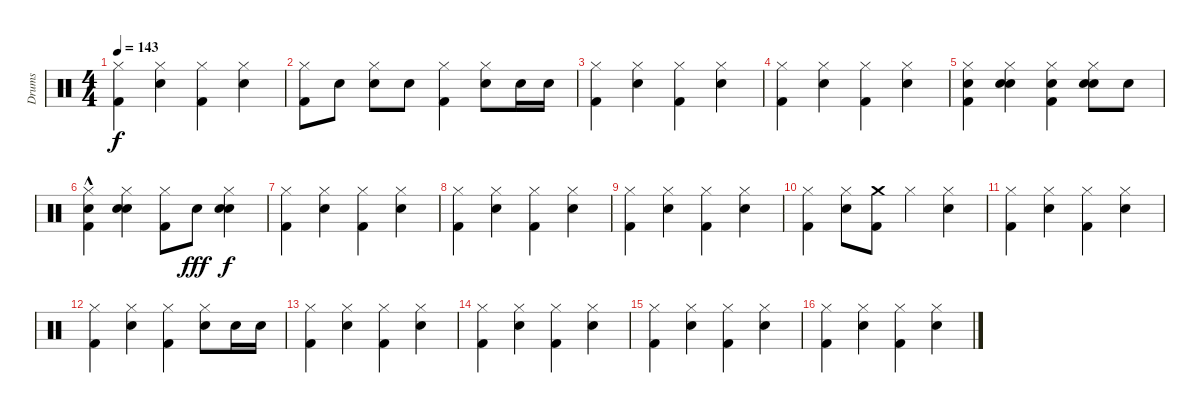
\track ("Drums" "Drums") {instrument percussion}
\staff {score}
\articulation defaults
\ts (4 4)
\tempo 143
\clef neutral
\ks c
("Hi-Hat (closed)" "Kick (hit) 2").4{dy f} ("Hi-Hat (closed)" "Electric Snare (hit)").4 ("Hi-Hat (closed)" "Kick (hit) 2").4 ("Hi-Hat (closed)" "Electric Snare (hit)").4 |
("Hi-Hat (closed)" "Kick (hit) 2").8 "Electric Snare (hit)".8 ("Hi-Hat (closed)" "Electric Snare (hit)").8 "Electric Snare (hit)".8 ("Hi-Hat (closed)" "Kick (hit) 2").4 ("Hi-Hat (closed)" "Electric Snare (hit)").8 "Electric Snare (hit)".16 "Snare (hit) 2".16 |
("Hi-Hat (closed)" "Kick (hit) 2").4 ("Hi-Hat (closed)" "Electric Snare (hit)").4 ("Hi-Hat (closed)" "Kick (hit) 2").4 ("Hi-Hat (closed)" "Electric Snare (hit)").4 |
("Hi-Hat (closed)" "Kick (hit) 2").4 ("Hi-Hat (closed)" "Electric Snare (hit)").4 ("Hi-Hat (closed)" "Kick (hit) 2").4 ("Hi-Hat (closed)" "Electric Snare (hit)").4 |
("Hand Clap (hit)" "Hi-Hat (closed)" "Kick (hit) 2").4 ("Hand Clap (hit)" "Hi-Hat (closed)" "Electric Snare (hit)").4 ("Hand Clap (hit)" "Hi-Hat (closed)" "Kick (hit) 2").4 ("Hand Clap (hit)" "Hi-Hat (closed)" "Electric Snare (hit)").8 "Hand Clap (hit)".8 |
("Hand Clap (hit)"{hac} "Hi-Hat (closed)"{hac} "Kick (hit) 2").4 ("Hand Clap (hit)" "Hi-Hat (closed)" "Electric Snare (hit)").4 ("Hi-Hat (closed)" "Kick (hit) 2").8 "Hand Clap (hit)".8{dy fff} ("Hand Clap (hit)" "Hi-Hat (closed)" "Electric Snare (hit)").4{dy f} |
("Hi-Hat (closed)" "Kick (hit) 2").4 ("Hi-Hat (closed)" "Electric Snare (hit)").4 ("Hi-Hat (closed)" "Kick (hit) 2").4 ("Hi-Hat (closed)" "Electric Snare (hit)").4 |
("Hi-Hat (closed)" "Kick (hit) 2").4 ("Hi-Hat (closed)" "Electric Snare (hit)").4 ("Hi-Hat (closed)" "Kick (hit) 2").4 ("Hi-Hat (closed)" "Electric Snare (hit)").4 |
("Hi-Hat (closed)" "Kick (hit) 2").4 ("Hi-Hat (closed)" "Electric Snare (hit)").4 ("Hi-Hat (closed)" "Kick (hit) 2").4 ("Hi-Hat (closed)" "Electric Snare (hit)").4 |
("Hi-Hat (closed)" "Kick (hit) 2").4 ("Hi-Hat (closed)" "Electric Snare (hit)").8 ("Crash medium (hit)" "Kick (hit) 2").8 "Hi-Hat (closed)".4 ("Hi-Hat (closed)" "Electric Snare (hit)").4 |
("Hi-Hat (closed)" "Kick (hit) 2").4 ("Hi-Hat (closed)" "Electric Snare (hit)").4 ("Hi-Hat (closed)" "Kick (hit) 2").4 ("Hi-Hat (closed)" "Electric Snare (hit)").4 |
("Hi-Hat (closed)" "Kick (hit) 2").4 ("Hi-Hat (closed)" "Electric Snare (hit)").4 ("Hi-Hat (closed)" "Kick (hit) 2").4 ("Hi-Hat (closed)" "Electric Snare (hit)").8 "Electric Snare (hit)".16 "Electric Snare (hit)".16 |
("Hi-Hat (closed)" "Kick (hit) 2").4 ("Hi-Hat (closed)" "Electric Snare (hit)").4 ("Hi-Hat (closed)" "Kick (hit) 2").4 ("Hi-Hat (closed)" "Electric Snare (hit)").4 |
("Hi-Hat (closed)" "Kick (hit) 2").4 ("Hi-Hat (closed)" "Electric Snare (hit)").4 ("Hi-Hat (closed)" "Kick (hit) 2").4 ("Hi-Hat (closed)" "Electric Snare (hit)").4 |
("Hi-Hat (closed)" "Kick (hit) 2").4 ("Hi-Hat (closed)" "Electric Snare (hit)").4 ("Hi-Hat (closed)" "Kick (hit) 2").4 ("Hi-Hat (closed)" "Electric Snare (hit)").4 |
("Hi-Hat (closed)" "Kick (hit) 2").4 ("Hi-Hat (closed)" "Electric Snare (hit)").4 ("Hi-Hat (closed)" "Kick (hit) 2").4 ("Hi-Hat (closed)" "Electric Snare (hit)").4
